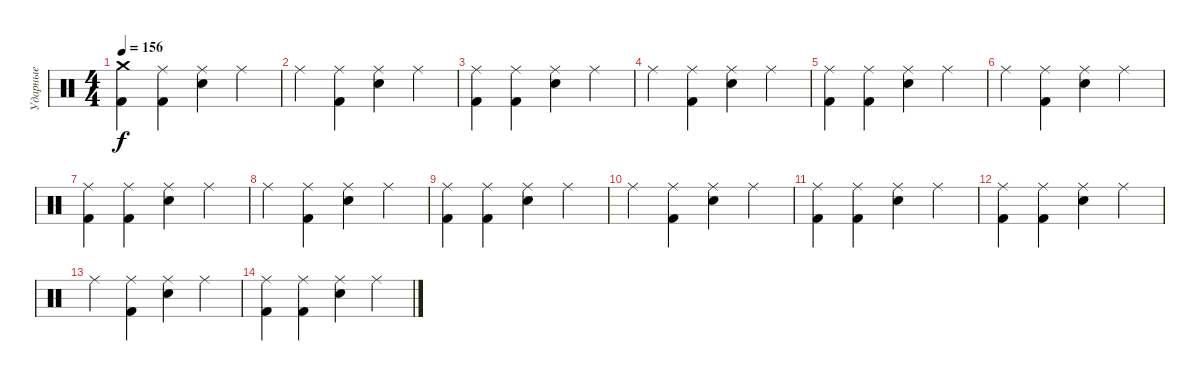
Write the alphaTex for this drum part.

\track ("Ударные" "Ударные") {instrument percussion}
\staff {score}
\articulation defaults
\ts (4 4)
\tempo 156
\clef neutral
\ks c
("Crash medium (hit)" "Kick (hit) 2").4{dy f} ("Ride (middle)" "Kick (hit) 2").4 ("Ride (middle)" "Electric Snare (hit)").4 "Ride (middle)".4 |
"Ride (middle)".4 ("Ride (middle)" "Kick (hit) 2").4 ("Ride (middle)" "Electric Snare (hit)").4 "Ride (middle)".4 |
("Ride (middle)" "Kick (hit) 2").4 ("Ride (middle)" "Kick (hit) 2").4 ("Ride (middle)" "Electric Snare (hit)").4 "Ride (middle)".4 |
"Ride (middle)".4 ("Ride (middle)" "Kick (hit) 2").4 ("Ride (middle)" "Electric Snare (hit)").4 "Ride (middle)".4 |
("Ride (middle)" "Kick (hit) 2").4 ("Ride (middle)" "Kick (hit) 2").4 ("Ride (middle)" "Electric Snare (hit)").4 "Ride (middle)".4 |
"Ride (middle)".4 ("Ride (middle)" "Kick (hit) 2").4 ("Ride (middle)" "Electric Snare (hit)").4 "Ride (middle)".4 |
("Ride (middle)" "Kick (hit) 2").4 ("Ride (middle)" "Kick (hit) 2").4 ("Ride (middle)" "Electric Snare (hit)").4 "Ride (middle)".4 |
"Ride (middle)".4 ("Ride (middle)" "Kick (hit) 2").4 ("Ride (middle)" "Electric Snare (hit)").4 "Ride (middle)".4 |
("Ride (middle)" "Kick (hit) 2").4 ("Ride (middle)" "Kick (hit) 2").4 ("Ride (middle)" "Electric Snare (hit)").4 "Ride (middle)".4 |
"Ride (middle)".4 ("Ride (middle)" "Kick (hit) 2").4 ("Ride (middle)" "Electric Snare (hit)").4 "Ride (middle)".4 |
("Ride (middle)" "Kick (hit) 2").4 ("Ride (middle)" "Kick (hit) 2").4 ("Ride (middle)" "Electric Snare (hit)").4 "Ride (middle)".4 |
("Ride (middle)" "Kick (hit) 2").4 ("Ride (middle)" "Kick (hit) 2").4 ("Ride (middle)" "Electric Snare (hit)").4 "Ride (middle)".4 |
"Ride (middle)".4 ("Ride (middle)" "Kick (hit) 2").4 ("Ride (middle)" "Electric Snare (hit)").4 "Ride (middle)".4 |
("Ride (middle)" "Kick (hit) 2").4 ("Ride (middle)" "Kick (hit) 2").4 ("Ride (middle)" "Electric Snare (hit)").4 "Ride (middle)".4
